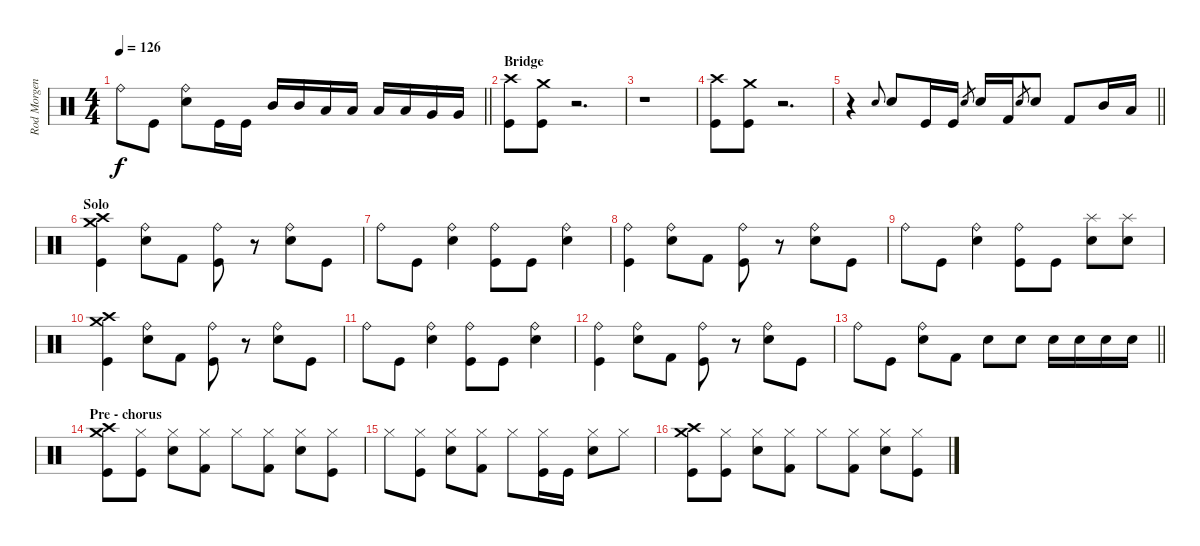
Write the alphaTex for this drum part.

\track ("Rod Morgenstein" "Rod Morgen") {instrument percussion}
\staff {score}
\articulation defaults
\ts (4 4)
\tempo 126
\clef neutral
\barLineRight lightlight
\ks c "Ride (bell)".8{dy f} "Kick (hit)".8
("Snare (hit) 2" "Ride (bell)").8 "Kick (hit)".16 "Kick (hit)".16 "Mid Tom (hit)".16 "Mid Tom (hit)".16 "Low Tom (hit)".16 "Low Tom (hit)".16 "Low Tom (hit)".16 "Low Tom (hit)".16 "Very Low Tom (hit)".16 "Very Low Tom (hit)".16 |
\section ("" "Bridge")
("Kick (hit)" "Crash high (hit)").8 ("Kick (hit)" "Crash medium (hit)").8 r.2{d} |
r.1 |
("Crash high (hit)" "Kick (hit)").8 ("Crash medium (hit)" "Kick (hit)").8 r.2{d} |
\barLineRight lightlight
r.4 "Snare (hit) 2".8{gr onbeat} "Snare (hit) 2".8 "Kick (hit)".16 "Kick (hit)".16 "Snare (hit) 2".8{gr} "Snare (hit) 2".16 "Kick (hit) 2".16 "Snare (hit) 2".8{gr} "Snare (hit) 2".8 "Kick (hit) 2".8 "Mid Tom (hit)".16 "Low Tom (hit)".16 |
\section ("" "Solo")
("Crash high (hit)" "Crash medium (hit)" "Kick (hit)").4 ("Snare (hit) 2" "Ride (bell)").8 "Kick (hit) 2".8 ("Ride (bell)" "Kick (hit)").8 r.8 ("Ride (bell)" "Snare (hit) 2").8 "Kick (hit)".8 |
"Ride (bell)".8 "Kick (hit)".8 ("Snare (hit) 2" "Ride (bell)").4 ("Ride (bell)" "Kick (hit)").8 "Kick (hit)".8 ("Ride (bell)" "Snare (hit) 2").4 |
("Ride (bell)" "Kick (hit)").4 ("Snare (hit) 2" "Ride (bell)").8 "Kick (hit) 2".8 ("Ride (bell)" "Kick (hit)").8 r.8 ("Ride (bell)" "Snare (hit) 2").8 "Kick (hit)".8 |
"Ride (bell)".8 "Kick (hit)".8 ("Snare (hit) 2" "Ride (bell)").4 ("Ride (bell)" "Kick (hit)").8 "Kick (hit)".8 ("Splash (hit)" "Snare (hit) 2").8 ("Splash (hit)" "Snare (hit) 2").8 |
("Crash high (hit)" "Crash medium (hit)" "Kick (hit)").4 ("Snare (hit) 2" "Ride (bell)").8 "Kick (hit) 2".8 ("Ride (bell)" "Kick (hit)").8 r.8 ("Ride (bell)" "Snare (hit) 2").8 "Kick (hit)".8 |
"Ride (bell)".8 "Kick (hit)".8 ("Snare (hit) 2" "Ride (bell)").4 ("Ride (bell)" "Kick (hit)").8 "Kick (hit)".8 ("Ride (bell)" "Snare (hit) 2").4 |
("Ride (bell)" "Kick (hit)").4 ("Snare (hit) 2" "Ride (bell)").8 "Kick (hit) 2".8 ("Ride (bell)" "Kick (hit)").8 r.8 ("Ride (bell)" "Snare (hit) 2").8 "Kick (hit)".8 |
\barLineRight lightlight "Ride (bell)".8 "Kick (hit)".8
("Snare (hit) 2" "Ride (bell)").8 "Kick (hit) 2".8 "Snare (hit) 2".8 "Snare (hit) 2".8 "Snare (hit) 2".16 "Snare (hit) 2".16 "Snare (hit) 2".16 "Snare (hit) 2".16 |
\section ("" "Pre - chorus")
("Kick (hit)" "Crash high (hit)" "Crash medium (hit)").8 ("Kick (hit)" "Hi-Hat (closed)").8 ("Snare (hit) 2" "Hi-Hat (closed)").8 ("Kick (hit) 2" "Hi-Hat (closed)").8 "Hi-Hat (closed)".8 ("Kick (hit) 2" "Hi-Hat (closed)").8 ("Snare (hit) 2" "Hi-Hat (closed)").8 ("Kick (hit)" "Hi-Hat (closed)").8 |
"Hi-Hat (closed)".8 ("Kick (hit)" "Hi-Hat (closed)").8 ("Hi-Hat (closed)" "Snare (hit) 2").8 ("Kick (hit) 2" "Hi-Hat (closed)").8 "Hi-Hat (closed)".8 ("Kick (hit)" "Hi-Hat (closed)").16 "Kick (hit)".16 ("Hi-Hat (closed)" "Snare (hit) 2").8 "Hi-Hat (closed)".8 |
("Kick (hit)" "Crash high (hit)" "Crash medium (hit)").8 ("Kick (hit)" "Hi-Hat (closed)").8 ("Snare (hit) 2" "Hi-Hat (closed)").8 ("Kick (hit) 2" "Hi-Hat (closed)").8 "Hi-Hat (closed)".8 ("Kick (hit) 2" "Hi-Hat (closed)").8 ("Snare (hit) 2" "Hi-Hat (closed)").8 ("Kick (hit)" "Hi-Hat (closed)").8
